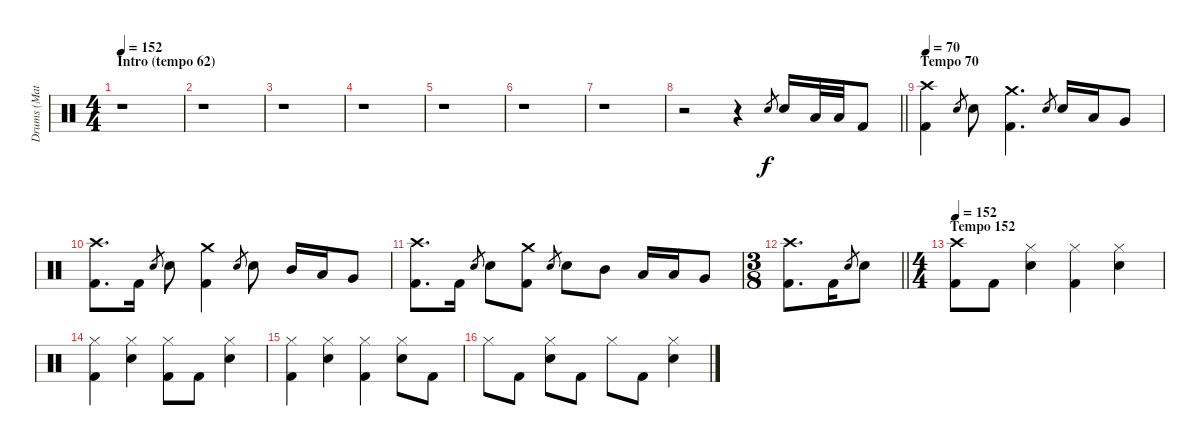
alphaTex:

\track ("Drums (Matt)" "Drums (Mat") {instrument percussion}
\staff {score}
\articulation defaults
\ts (4 4)
\section ("" "Intro (tempo 62)")
\tempo 152
\tempo 62
\tempo 152
\clef neutral
\ks c
r.1{dy f} |
r.1 |
r.1 |
r.1 |
r.1 |
r.1 |
r.1 |
\barLineRight lightlight
r.2 r.4 "Snare (hit) 2".8{gr} "Snare (hit) 2".16 "Low Tom (hit)".32 "Low Tom (hit)".32 "Kick (hit) 2".8 |
\section ("" "Tempo 70")
\tempo 70
("Crash high (hit)" "Kick (hit) 2").4 "Snare (hit) 2".8{gr} "Snare (hit) 2".8 ("Crash medium (hit)" "Kick (hit) 2").4{d} "Snare (hit) 2".8{gr} "Snare (hit) 2".16 "Low Tom (hit)".16 "Very Low Tom (hit)".8 |
("Crash high (hit)" "Kick (hit) 2").8{d} "Kick (hit) 2".16 "Snare (hit) 2".8{gr} "Snare (hit) 2".8 ("Crash medium (hit)" "Kick (hit) 2").4 "Snare (hit) 2".8{gr} "Snare (hit) 2".8 "Mid Tom (hit)".16 "Low Tom (hit)".16 "Very Low Tom (hit)".8 |
("Crash high (hit)" "Kick (hit) 2").8{d} "Kick (hit) 2".16 "Snare (hit) 2".8{gr} "Snare (hit) 2".8 ("Crash medium (hit)" "Kick (hit) 2").8 "Snare (hit) 2".8{gr} "Snare (hit) 2".8 "Mid Tom (hit)".8 "Low Tom (hit)".16 "Low Tom (hit)".16 "Very Low Tom (hit)".8 |
\ts (3 8)
\barLineRight lightlight
("Crash high (hit)" "Kick (hit) 2").8{d} "Kick (hit) 2".16 "Snare (hit) 2".8{gr} "Snare (hit) 2".8 |
\ts (4 4)
\section ("" "Tempo 152")
\tempo 152
("Crash high (hit)" "Kick (hit) 2").8 "Kick (hit) 2".8 ("Hi-Hat (closed)" "Snare (hit) 2").4 ("Hi-Hat (closed)" "Kick (hit) 2").4 ("Hi-Hat (closed)" "Snare (hit) 2").4 |
("Hi-Hat (closed)" "Kick (hit) 2").4 ("Hi-Hat (closed)" "Snare (hit) 2").4 ("Hi-Hat (closed)" "Kick (hit) 2").8 "Kick (hit) 2".8 ("Hi-Hat (closed)" "Snare (hit) 2").4 |
("Hi-Hat (closed)" "Kick (hit) 2").4 ("Hi-Hat (closed)" "Snare (hit) 2").4 ("Hi-Hat (closed)" "Kick (hit) 2").4 ("Hi-Hat (closed)" "Snare (hit) 2").8 "Kick (hit) 2".8 |
"Hi-Hat (closed)".8 "Kick (hit) 2".8 ("Hi-Hat (closed)" "Snare (hit) 2").8 "Kick (hit) 2".8 "Hi-Hat (closed)".8 "Kick (hit) 2".8 ("Hi-Hat (closed)" "Snare (hit) 2").4
